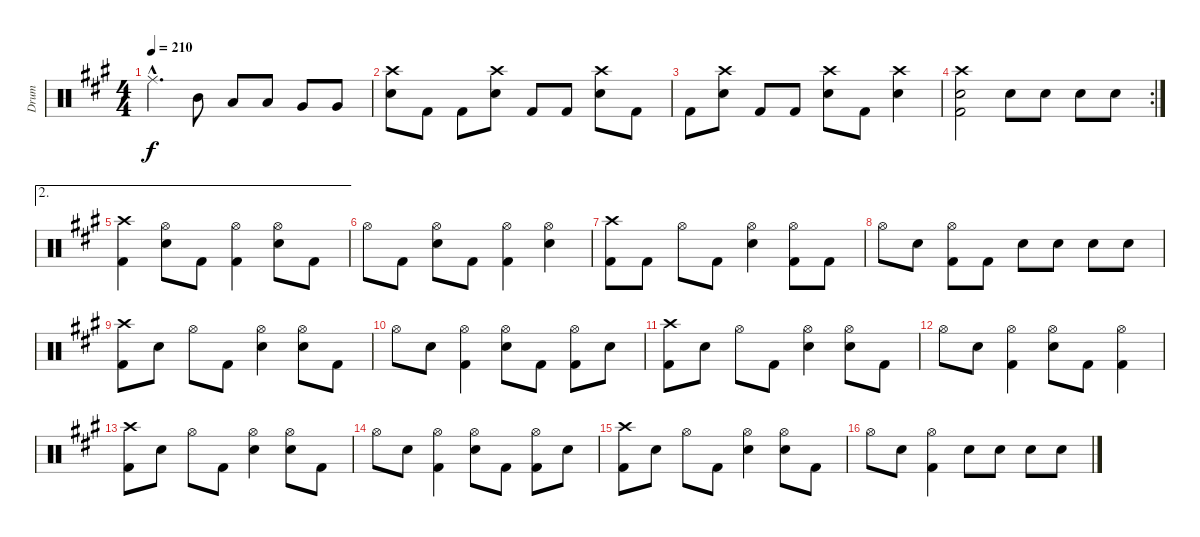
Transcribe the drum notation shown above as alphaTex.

\track ("Drum" "Drum") {instrument percussion}
\staff {score}
\articulation defaults
\ts (4 4)
\tempo 210
\clef neutral
\ks a "Ride (middle)"{hac}.4{d dy f} "Mid Tom (hit)".8 "Low Tom (hit)".8 "Low Tom (hit)".8 "Very Low Tom (hit)".8 "Very Low Tom (hit)".8
|
("Crash high (hit)" "Electric Snare (hit)").8 "Kick (hit) 2".8 "Kick (hit) 2".8 ("Crash high (hit)" "Electric Snare (hit)").8 "Kick (hit) 2".8 "Kick (hit) 2".8 ("Crash high (hit)" "Electric Snare (hit)").8 "Kick (hit) 2".8 |
"Kick (hit) 2".8 ("Crash high (hit)" "Electric Snare (hit)").8 "Kick (hit) 2".8 "Kick (hit) 2".8 ("Crash high (hit)" "Electric Snare (hit)").8 "Kick (hit) 2".8 ("Crash high (hit)" "Electric Snare (hit)").4 |
\rc 2
("Crash high (hit)" "Electric Snare (hit)" "Kick (hit) 2").2 "Electric Snare (hit)".8 "Electric Snare (hit)".8 "Electric Snare (hit)".8 "Electric Snare (hit)".8 |
\ae 2
("Crash high (hit)" "Kick (hit) 2").4 ("Hi-Hat (open)" "Electric Snare (hit)").8 "Kick (hit) 2".8 ("Hi-Hat (open)" "Kick (hit) 2").4 ("Hi-Hat (open)" "Electric Snare (hit)").8 "Kick (hit) 2".8 |
"Hi-Hat (open)".8 "Kick (hit) 2".8 ("Hi-Hat (open)" "Electric Snare (hit)").8 "Kick (hit) 2".8 ("Hi-Hat (open)" "Kick (hit) 2").4 ("Hi-Hat (open)" "Electric Snare (hit)").4 |
("Crash high (hit)" "Kick (hit) 2").8 "Kick (hit) 2".8 "Hi-Hat (open)".8 "Kick (hit) 2".8 ("Hi-Hat (open)" "Electric Snare (hit)").4 ("Hi-Hat (open)" "Kick (hit) 2").8 "Kick (hit) 2".8 |
"Hi-Hat (open)".8 "Electric Snare (hit)".8 ("Hi-Hat (open)" "Kick (hit) 2").8 "Kick (hit) 2".8 "Electric Snare (hit)".8 "Electric Snare (hit)".8 "Electric Snare (hit)".8 "Electric Snare (hit)".8 |
("Crash high (hit)" "Kick (hit) 2").8 "Electric Snare (hit)".8 "Hi-Hat (open)".8 "Kick (hit) 2".8 ("Hi-Hat (open)" "Electric Snare (hit)").4 ("Hi-Hat (open)" "Electric Snare (hit)").8 "Kick (hit) 2".8 |
"Hi-Hat (open)".8 "Electric Snare (hit)".8 ("Hi-Hat (open)" "Kick (hit) 2").4 ("Hi-Hat (open)" "Electric Snare (hit)").8 "Kick (hit) 2".8 ("Hi-Hat (open)" "Kick (hit) 2").8 "Electric Snare (hit)".8 |
("Crash high (hit)" "Kick (hit) 2").8 "Electric Snare (hit)".8 "Hi-Hat (open)".8 "Kick (hit) 2".8 ("Hi-Hat (open)" "Electric Snare (hit)").4 ("Hi-Hat (open)" "Electric Snare (hit)").8 "Kick (hit) 2".8 |
"Hi-Hat (open)".8 "Electric Snare (hit)".8 ("Hi-Hat (open)" "Kick (hit) 2").4 ("Hi-Hat (open)" "Electric Snare (hit)").8 "Kick (hit) 2".8 ("Hi-Hat (open)" "Kick (hit) 2").4 |
("Crash high (hit)" "Kick (hit) 2").8 "Electric Snare (hit)".8 "Hi-Hat (open)".8 "Kick (hit) 2".8 ("Hi-Hat (open)" "Electric Snare (hit)").4 ("Hi-Hat (open)" "Electric Snare (hit)").8 "Kick (hit) 2".8 |
"Hi-Hat (open)".8 "Electric Snare (hit)".8 ("Hi-Hat (open)" "Kick (hit) 2").4 ("Hi-Hat (open)" "Electric Snare (hit)").8 "Kick (hit) 2".8 ("Hi-Hat (open)" "Kick (hit) 2").8 "Electric Snare (hit)".8 |
("Crash high (hit)" "Kick (hit) 2").8 "Electric Snare (hit)".8 "Hi-Hat (open)".8 "Kick (hit) 2".8 ("Hi-Hat (open)" "Electric Snare (hit)").4 ("Hi-Hat (open)" "Electric Snare (hit)").8 "Kick (hit) 2".8 |
"Hi-Hat (open)".8 "Electric Snare (hit)".8 ("Hi-Hat (open)" "Kick (hit) 2").4 "Electric Snare (hit)".8 "Electric Snare (hit)".8 "Electric Snare (hit)".8 "Electric Snare (hit)".8
